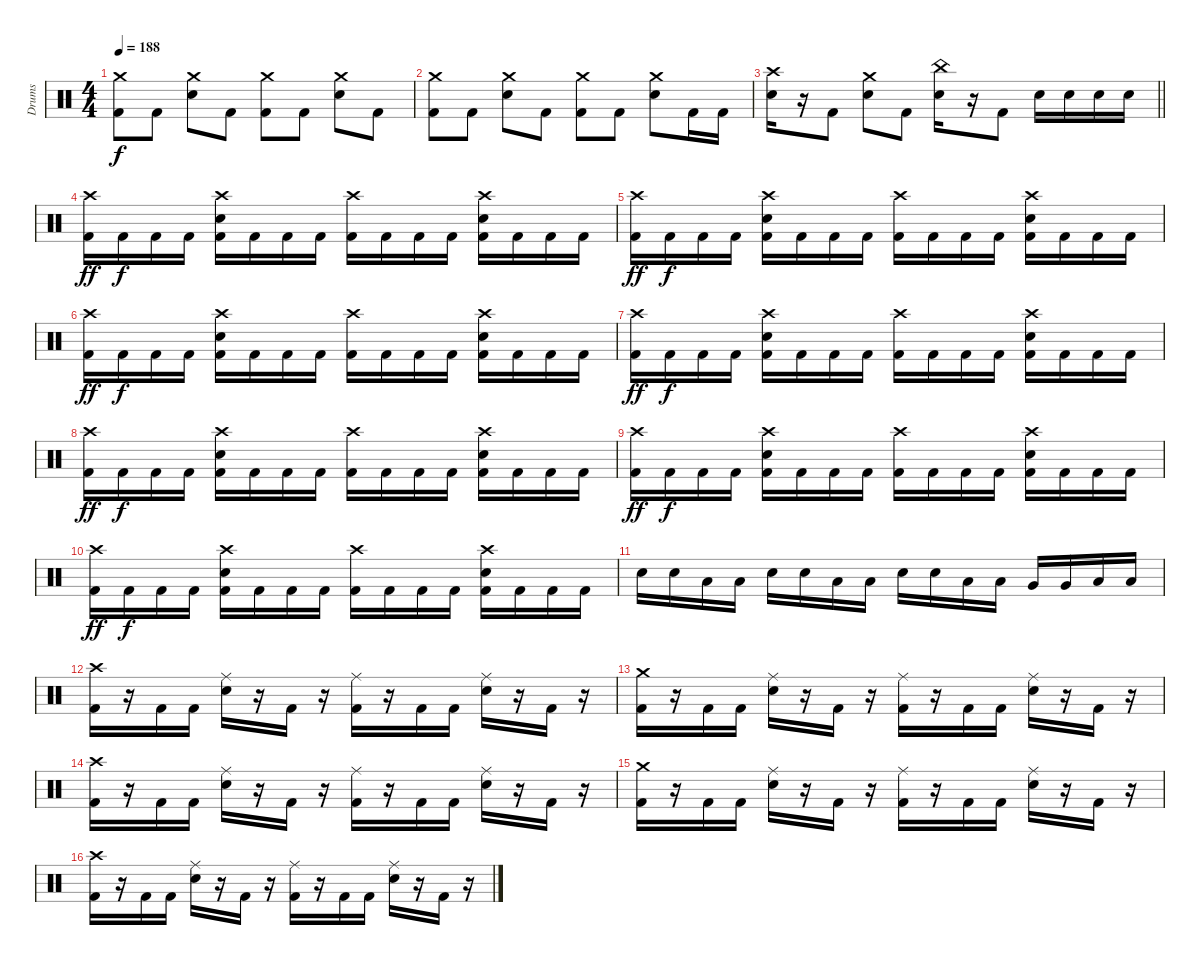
\track ("Drums" "Drums") {instrument percussion}
\staff {score}
\articulation defaults
\ts (4 4)
\tempo 188
\clef neutral
\ks c
("Kick (hit) 2" "Crash medium (hit)").8{dy f} "Kick (hit) 2".8 ("Snare (hit) 2" "Crash medium (hit)").8 "Kick (hit) 2".8 ("Kick (hit) 2" "Crash medium (hit)").8 "Kick (hit) 2".8 ("Snare (hit) 2" "Crash medium (hit)").8 "Kick (hit) 2".8 |
("Kick (hit) 2" "Crash medium (hit)").8 "Kick (hit) 2".8 ("Snare (hit) 2" "Crash medium (hit)").8 "Kick (hit) 2".8 ("Kick (hit) 2" "Crash medium (hit)").8 "Kick (hit) 2".8 ("Snare (hit) 2" "Crash medium (hit)").8 "Kick (hit) 2".16 "Kick (hit) 2".16 |
\barLineRight lightlight
("Snare (hit) 2" "Crash high (hit)").16 r.16 "Kick (hit) 2".8 ("Snare (hit) 2" "Crash medium (hit)").8 "Kick (hit) 2".8 ("Snare (hit) 2" "China (hit)").16 r.16 "Kick (hit) 2".8 "Snare (hit) 2".16 "Snare (hit) 2".16 "Snare (hit) 2".16 "Snare (hit) 2".16 |
\section ("" " ")
("Kick (hit) 2" "Crash high (hit)").16{dy ff} "Kick (hit) 2".16{dy f} "Kick (hit) 2".16 "Kick (hit) 2".16 ("Kick (hit) 2" "Snare (hit) 2" "Crash high (hit)").16 "Kick (hit) 2".16 "Kick (hit) 2".16 "Kick (hit) 2".16 ("Kick (hit) 2" "Crash high (hit)").16 "Kick (hit) 2".16 "Kick (hit) 2".16 "Kick (hit) 2".16 ("Kick (hit) 2" "Snare (hit) 2" "Crash high (hit)").16 "Kick (hit) 2".16 "Kick (hit) 2".16 "Kick (hit) 2".16 |
("Kick (hit) 2" "Crash high (hit)").16{dy ff} "Kick (hit) 2".16{dy f} "Kick (hit) 2".16 "Kick (hit) 2".16 ("Kick (hit) 2" "Snare (hit) 2" "Crash high (hit)").16 "Kick (hit) 2".16 "Kick (hit) 2".16 "Kick (hit) 2".16 ("Kick (hit) 2" "Crash high (hit)").16 "Kick (hit) 2".16 "Kick (hit) 2".16 "Kick (hit) 2".16 ("Kick (hit) 2" "Snare (hit) 2" "Crash high (hit)").16 "Kick (hit) 2".16 "Kick (hit) 2".16 "Kick (hit) 2".16 |
("Kick (hit) 2" "Crash high (hit)").16{dy ff} "Kick (hit) 2".16{dy f} "Kick (hit) 2".16 "Kick (hit) 2".16 ("Kick (hit) 2" "Snare (hit) 2" "Crash high (hit)").16 "Kick (hit) 2".16 "Kick (hit) 2".16 "Kick (hit) 2".16 ("Kick (hit) 2" "Crash high (hit)").16 "Kick (hit) 2".16 "Kick (hit) 2".16 "Kick (hit) 2".16 ("Kick (hit) 2" "Snare (hit) 2" "Crash high (hit)").16 "Kick (hit) 2".16 "Kick (hit) 2".16 "Kick (hit) 2".16 |
("Kick (hit) 2" "Crash high (hit)").16{dy ff} "Kick (hit) 2".16{dy f} "Kick (hit) 2".16 "Kick (hit) 2".16 ("Kick (hit) 2" "Snare (hit) 2" "Crash high (hit)").16 "Kick (hit) 2".16 "Kick (hit) 2".16 "Kick (hit) 2".16 ("Kick (hit) 2" "Crash high (hit)").16 "Kick (hit) 2".16 "Kick (hit) 2".16 "Kick (hit) 2".16 ("Kick (hit) 2" "Snare (hit) 2" "Crash high (hit)").16 "Kick (hit) 2".16 "Kick (hit) 2".16 "Kick (hit) 2".16 |
("Kick (hit) 2" "Crash high (hit)").16{dy ff} "Kick (hit) 2".16{dy f} "Kick (hit) 2".16 "Kick (hit) 2".16 ("Kick (hit) 2" "Snare (hit) 2" "Crash high (hit)").16 "Kick (hit) 2".16 "Kick (hit) 2".16 "Kick (hit) 2".16 ("Kick (hit) 2" "Crash high (hit)").16 "Kick (hit) 2".16 "Kick (hit) 2".16 "Kick (hit) 2".16 ("Kick (hit) 2" "Snare (hit) 2" "Crash high (hit)").16 "Kick (hit) 2".16 "Kick (hit) 2".16 "Kick (hit) 2".16 |
("Kick (hit) 2" "Crash high (hit)").16{dy ff} "Kick (hit) 2".16{dy f} "Kick (hit) 2".16 "Kick (hit) 2".16 ("Kick (hit) 2" "Snare (hit) 2" "Crash high (hit)").16 "Kick (hit) 2".16 "Kick (hit) 2".16 "Kick (hit) 2".16 ("Kick (hit) 2" "Crash high (hit)").16 "Kick (hit) 2".16 "Kick (hit) 2".16 "Kick (hit) 2".16 ("Kick (hit) 2" "Snare (hit) 2" "Crash high (hit)").16 "Kick (hit) 2".16 "Kick (hit) 2".16 "Kick (hit) 2".16 |
("Kick (hit) 2" "Crash high (hit)").16{dy ff} "Kick (hit) 2".16{dy f} "Kick (hit) 2".16 "Kick (hit) 2".16 ("Kick (hit) 2" "Snare (hit) 2" "Crash high (hit)").16 "Kick (hit) 2".16 "Kick (hit) 2".16 "Kick (hit) 2".16 ("Kick (hit) 2" "Crash high (hit)").16 "Kick (hit) 2".16 "Kick (hit) 2".16 "Kick (hit) 2".16 ("Kick (hit) 2" "Snare (hit) 2" "Crash high (hit)").16 "Kick (hit) 2".16 "Kick (hit) 2".16 "Kick (hit) 2".16 |
"Snare (hit) 2".16 "Snare (hit) 2".16 "Low Tom (hit)".16 "Low Tom (hit)".16 "Snare (hit) 2".16 "Snare (hit) 2".16 "Low Tom (hit)".16 "Low Tom (hit)".16 "Snare (hit) 2".16 "Snare (hit) 2".16 "Low Tom (hit)".16 "Low Tom (hit)".16 "Very Low Tom (hit)".16 "Very Low Tom (hit)".16 "Low Floor Tom (hit)".16 "Low Floor Tom (hit)".16 |
("Kick (hit) 2" "Crash high (hit)").16 r.16 "Kick (hit) 2".16 "Kick (hit) 2".16 ("Snare (hit) 2" "Ride (middle)").16 r.16 "Kick (hit) 2".16 r.16 ("Kick (hit) 2" "Ride (middle)").16 r.16 "Kick (hit) 2".16 "Kick (hit) 2".16 ("Snare (hit) 2" "Ride (middle)").16 r.16 "Kick (hit) 2".16 r.16 |
("Kick (hit) 2" "Crash medium (hit)").16 r.16 "Kick (hit) 2".16 "Kick (hit) 2".16 ("Snare (hit) 2" "Ride (middle)").16 r.16 "Kick (hit) 2".16 r.16 ("Kick (hit) 2" "Ride (middle)").16 r.16 "Kick (hit) 2".16 "Kick (hit) 2".16 ("Snare (hit) 2" "Ride (middle)").16 r.16 "Kick (hit) 2".16 r.16 |
("Kick (hit) 2" "Crash high (hit)").16 r.16 "Kick (hit) 2".16 "Kick (hit) 2".16 ("Snare (hit) 2" "Ride (middle)").16 r.16 "Kick (hit) 2".16 r.16 ("Kick (hit) 2" "Ride (middle)").16 r.16 "Kick (hit) 2".16 "Kick (hit) 2".16 ("Snare (hit) 2" "Ride (middle)").16 r.16 "Kick (hit) 2".16 r.16 |
("Kick (hit) 2" "Crash medium (hit)").16 r.16 "Kick (hit) 2".16 "Kick (hit) 2".16 ("Snare (hit) 2" "Ride (middle)").16 r.16 "Kick (hit) 2".16 r.16 ("Kick (hit) 2" "Ride (middle)").16 r.16 "Kick (hit) 2".16 "Kick (hit) 2".16 ("Snare (hit) 2" "Ride (middle)").16 r.16 "Kick (hit) 2".16 r.16 |
("Kick (hit) 2" "Crash high (hit)").16 r.16 "Kick (hit) 2".16 "Kick (hit) 2".16 ("Snare (hit) 2" "Ride (middle)").16 r.16 "Kick (hit) 2".16 r.16 ("Kick (hit) 2" "Ride (middle)").16 r.16 "Kick (hit) 2".16 "Kick (hit) 2".16 ("Snare (hit) 2" "Ride (middle)").16 r.16 "Kick (hit) 2".16 r.16
